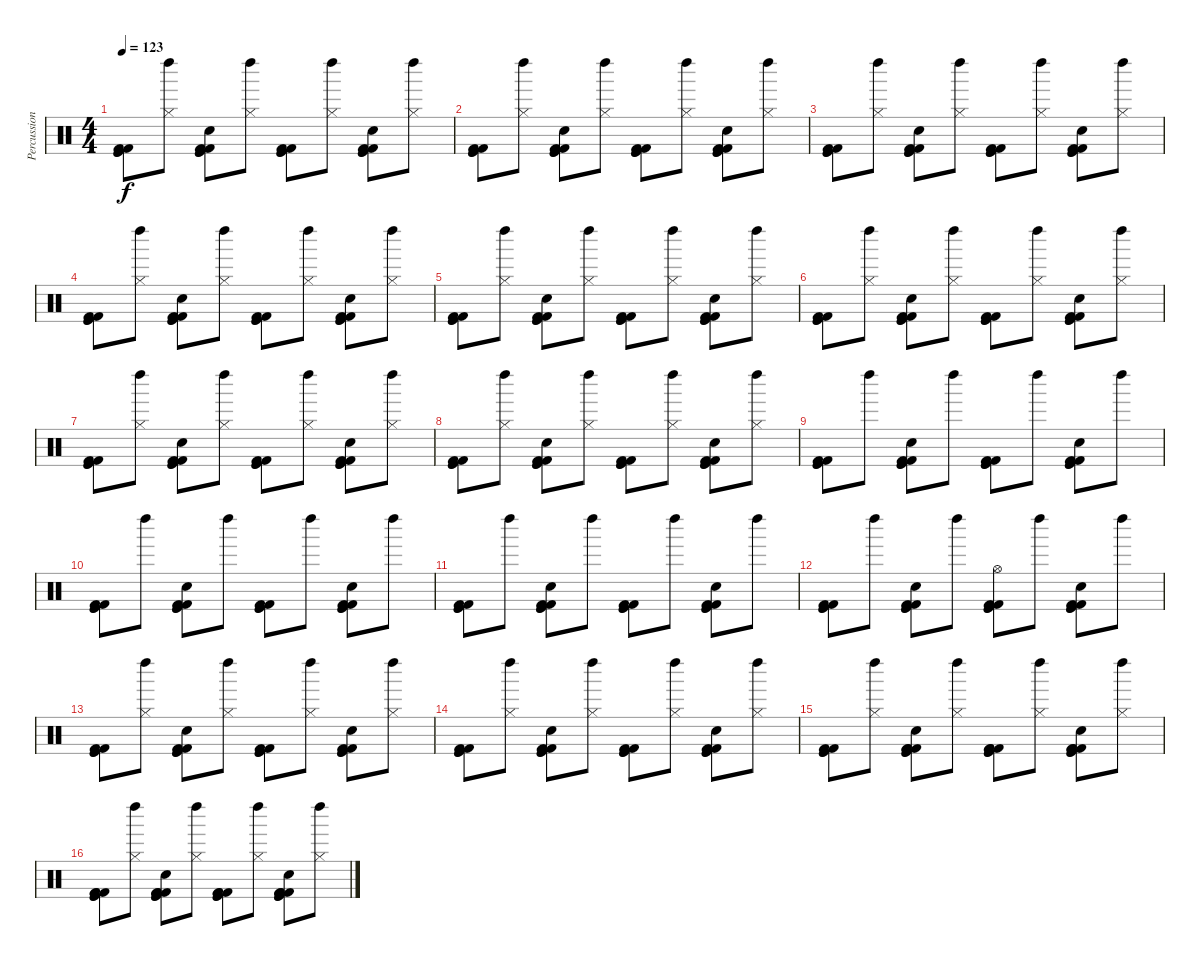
\track ("Percussion" "Percussion") {instrument percussion}
\staff {score}
\articulation defaults
\ts (4 4)
\tempo 123
\clef neutral
\ks c
("Kick (hit)" "Kick (hit)" "Kick (hit) 2" "Kick (hit) 2").8{dy f} ("Left Maraca (hit)" "Hi-Hat (closed)").8 ("Kick (hit)" "Kick (hit)" "Hand Clap (hit)" "Kick (hit) 2" "Kick (hit) 2").8 ("Left Maraca (hit)" "Hi-Hat (closed)").8 ("Kick (hit)" "Kick (hit)" "Kick (hit) 2" "Kick (hit) 2").8 ("Left Maraca (hit)" "Hi-Hat (closed)").8 ("Kick (hit)" "Kick (hit)" "Hand Clap (hit)" "Kick (hit) 2" "Kick (hit) 2").8 ("Left Maraca (hit)" "Hi-Hat (closed)").8 |
("Kick (hit)" "Kick (hit)" "Kick (hit) 2" "Kick (hit) 2").8 ("Left Maraca (hit)" "Hi-Hat (closed)").8 ("Kick (hit)" "Kick (hit)" "Hand Clap (hit)" "Kick (hit) 2" "Kick (hit) 2").8 ("Left Maraca (hit)" "Hi-Hat (closed)").8 ("Kick (hit)" "Kick (hit)" "Kick (hit) 2" "Kick (hit) 2").8 ("Left Maraca (hit)" "Hi-Hat (closed)").8 ("Kick (hit)" "Kick (hit)" "Hand Clap (hit)" "Kick (hit) 2" "Kick (hit) 2").8 ("Left Maraca (hit)" "Hi-Hat (closed)").8 |
("Kick (hit)" "Kick (hit)" "Kick (hit) 2" "Kick (hit) 2").8 ("Left Maraca (hit)" "Hi-Hat (closed)").8 ("Kick (hit)" "Kick (hit)" "Hand Clap (hit)" "Kick (hit) 2" "Kick (hit) 2").8 ("Left Maraca (hit)" "Hi-Hat (closed)").8 ("Kick (hit)" "Kick (hit) 2" "Kick (hit)" "Kick (hit) 2").8 ("Left Maraca (hit)" "Hi-Hat (closed)").8 ("Kick (hit)" "Kick (hit)" "Hand Clap (hit)" "Kick (hit) 2" "Kick (hit) 2").8 ("Left Maraca (hit)" "Hi-Hat (closed)").8 |
("Kick (hit)" "Kick (hit)" "Kick (hit) 2" "Kick (hit) 2").8 ("Left Maraca (hit)" "Hi-Hat (closed)").8 ("Kick (hit)" "Kick (hit)" "Hand Clap (hit)" "Kick (hit) 2" "Kick (hit) 2").8 ("Left Maraca (hit)" "Hi-Hat (closed)").8 ("Kick (hit)" "Kick (hit)" "Kick (hit) 2" "Kick (hit) 2").8 ("Left Maraca (hit)" "Hi-Hat (closed)").8 ("Kick (hit)" "Kick (hit)" "Hand Clap (hit)" "Kick (hit) 2" "Kick (hit) 2").8 ("Left Maraca (hit)" "Hi-Hat (closed)").8 |
("Kick (hit)" "Kick (hit)" "Kick (hit) 2" "Kick (hit) 2").8 ("Left Maraca (hit)" "Hi-Hat (closed)").8 ("Kick (hit)" "Kick (hit)" "Hand Clap (hit)" "Kick (hit) 2" "Kick (hit) 2").8 ("Left Maraca (hit)" "Hi-Hat (closed)").8 ("Kick (hit)" "Kick (hit)" "Kick (hit) 2" "Kick (hit) 2").8 ("Left Maraca (hit)" "Hi-Hat (closed)").8 ("Kick (hit)" "Kick (hit)" "Hand Clap (hit)" "Kick (hit) 2" "Kick (hit) 2").8 ("Left Maraca (hit)" "Hi-Hat (closed)").8 |
("Kick (hit)" "Kick (hit)" "Kick (hit) 2" "Kick (hit) 2").8 ("Left Maraca (hit)" "Hi-Hat (closed)").8 ("Kick (hit)" "Kick (hit)" "Hand Clap (hit)" "Kick (hit) 2" "Kick (hit) 2").8 ("Left Maraca (hit)" "Hi-Hat (closed)").8 ("Kick (hit)" "Kick (hit)" "Kick (hit) 2" "Kick (hit) 2").8 ("Left Maraca (hit)" "Hi-Hat (closed)").8 ("Kick (hit)" "Kick (hit)" "Hand Clap (hit)" "Kick (hit) 2" "Kick (hit) 2").8 ("Left Maraca (hit)" "Hi-Hat (closed)").8 |
("Kick (hit)" "Kick (hit)" "Kick (hit) 2" "Kick (hit) 2").8 ("Left Maraca (hit)" "Hi-Hat (closed)").8 ("Kick (hit)" "Kick (hit)" "Hand Clap (hit)" "Kick (hit) 2" "Kick (hit) 2").8 ("Left Maraca (hit)" "Hi-Hat (closed)").8 ("Kick (hit)" "Kick (hit) 2" "Kick (hit)" "Kick (hit) 2").8 ("Left Maraca (hit)" "Hi-Hat (closed)").8 ("Kick (hit)" "Kick (hit)" "Hand Clap (hit)" "Kick (hit) 2" "Kick (hit) 2").8 ("Left Maraca (hit)" "Hi-Hat (closed)").8 |
("Kick (hit)" "Kick (hit)" "Kick (hit) 2" "Kick (hit) 2").8 ("Left Maraca (hit)" "Hi-Hat (closed)").8 ("Kick (hit)" "Kick (hit)" "Hand Clap (hit)" "Kick (hit) 2" "Kick (hit) 2").8 ("Left Maraca (hit)" "Hi-Hat (closed)").8 ("Kick (hit)" "Kick (hit)" "Kick (hit) 2" "Kick (hit) 2").8 ("Left Maraca (hit)" "Hi-Hat (closed)").8 ("Kick (hit)" "Kick (hit)" "Hand Clap (hit)" "Kick (hit) 2" "Kick (hit) 2").8 ("Left Maraca (hit)" "Hi-Hat (closed)").8 |
("Kick (hit)" "Kick (hit)" "Kick (hit) 2" "Kick (hit) 2").8 "Left Maraca (hit)".8 ("Kick (hit)" "Kick (hit)" "Hand Clap (hit)" "Kick (hit) 2" "Kick (hit) 2").8 "Left Maraca (hit)".8 ("Kick (hit)" "Kick (hit) 2" "Kick (hit)" "Kick (hit) 2").8 "Left Maraca (hit)".8 ("Kick (hit)" "Kick (hit)" "Hand Clap (hit)" "Kick (hit) 2" "Kick (hit) 2").8 "Left Maraca (hit)".8 |
("Kick (hit)" "Kick (hit)" "Kick (hit) 2" "Kick (hit) 2").8 "Left Maraca (hit)".8 ("Kick (hit)" "Kick (hit)" "Hand Clap (hit)" "Kick (hit) 2" "Kick (hit) 2").8 "Left Maraca (hit)".8 ("Kick (hit)" "Kick (hit)" "Kick (hit) 2" "Kick (hit) 2").8 "Left Maraca (hit)".8 ("Kick (hit)" "Kick (hit)" "Hand Clap (hit)" "Kick (hit) 2" "Kick (hit) 2").8 "Left Maraca (hit)".8 |
("Kick (hit)" "Kick (hit)" "Kick (hit) 2" "Kick (hit) 2").8 "Left Maraca (hit)".8 ("Kick (hit)" "Kick (hit)" "Hand Clap (hit)" "Kick (hit) 2" "Kick (hit) 2").8 "Left Maraca (hit)".8 ("Kick (hit)" "Kick (hit) 2" "Kick (hit)" "Kick (hit) 2").8 "Left Maraca (hit)".8 ("Kick (hit)" "Kick (hit)" "Hand Clap (hit)" "Kick (hit) 2" "Kick (hit) 2").8 "Left Maraca (hit)".8 |
("Kick (hit)" "Kick (hit)" "Kick (hit) 2" "Kick (hit) 2").8 "Left Maraca (hit)".8 ("Kick (hit)" "Kick (hit)" "Hand Clap (hit)" "Kick (hit) 2" "Kick (hit) 2").8 "Left Maraca (hit)".8 ("Hi-Hat (open)" "Kick (hit)" "Kick (hit)" "Kick (hit) 2" "Kick (hit) 2").8 "Left Maraca (hit)".8 ("Kick (hit)" "Kick (hit)" "Hand Clap (hit)" "Kick (hit) 2" "Kick (hit) 2").8 "Left Maraca (hit)".8 |
("Kick (hit)" "Kick (hit)" "Kick (hit) 2" "Kick (hit) 2").8 ("Hi-Hat (closed)" "Left Maraca (hit)").8 ("Kick (hit)" "Kick (hit)" "Kick (hit) 2" "Hand Clap (hit)" "Kick (hit) 2").8 ("Hi-Hat (closed)" "Left Maraca (hit)").8 ("Kick (hit)" "Kick (hit)" "Kick (hit) 2" "Kick (hit) 2").8 ("Hi-Hat (closed)" "Left Maraca (hit)").8 ("Kick (hit)" "Kick (hit)" "Kick (hit) 2" "Hand Clap (hit)" "Kick (hit) 2").8 ("Hi-Hat (closed)" "Left Maraca (hit)").8 |
("Kick (hit)" "Kick (hit)" "Kick (hit) 2" "Kick (hit) 2").8 ("Hi-Hat (closed)" "Left Maraca (hit)").8 ("Kick (hit)" "Kick (hit)" "Kick (hit) 2" "Hand Clap (hit)" "Kick (hit) 2").8 ("Hi-Hat (closed)" "Left Maraca (hit)").8 ("Kick (hit)" "Kick (hit)" "Kick (hit) 2" "Kick (hit) 2").8 ("Hi-Hat (closed)" "Left Maraca (hit)").8 ("Kick (hit)" "Kick (hit)" "Kick (hit) 2" "Hand Clap (hit)" "Kick (hit) 2").8 ("Hi-Hat (closed)" "Left Maraca (hit)").8 |
("Kick (hit)" "Kick (hit)" "Kick (hit) 2" "Kick (hit) 2").8 ("Hi-Hat (closed)" "Left Maraca (hit)").8 ("Kick (hit)" "Kick (hit)" "Kick (hit) 2" "Kick (hit) 2" "Hand Clap (hit)" "Kick (hit) 2").8 ("Hi-Hat (closed)" "Left Maraca (hit)").8 ("Kick (hit)" "Kick (hit)" "Kick (hit) 2" "Kick (hit) 2" "Kick (hit) 2").8 ("Hi-Hat (closed)" "Left Maraca (hit)").8 ("Kick (hit)" "Kick (hit)" "Kick (hit) 2" "Kick (hit) 2" "Hand Clap (hit)" "Kick (hit) 2").8 ("Hi-Hat (closed)" "Left Maraca (hit)").8 |
("Kick (hit)" "Kick (hit)" "Kick (hit) 2" "Kick (hit) 2" "Kick (hit) 2").8 ("Hi-Hat (closed)" "Left Maraca (hit)").8 ("Kick (hit)" "Kick (hit)" "Kick (hit) 2" "Kick (hit) 2" "Hand Clap (hit)" "Kick (hit) 2").8 ("Hi-Hat (closed)" "Left Maraca (hit)").8 ("Kick (hit)" "Kick (hit)" "Kick (hit) 2" "Kick (hit) 2" "Kick (hit) 2").8 ("Hi-Hat (closed)" "Left Maraca (hit)").8 ("Kick (hit)" "Kick (hit)" "Kick (hit) 2" "Kick (hit) 2" "Hand Clap (hit)" "Kick (hit) 2").8 ("Hi-Hat (closed)" "Left Maraca (hit)").8
